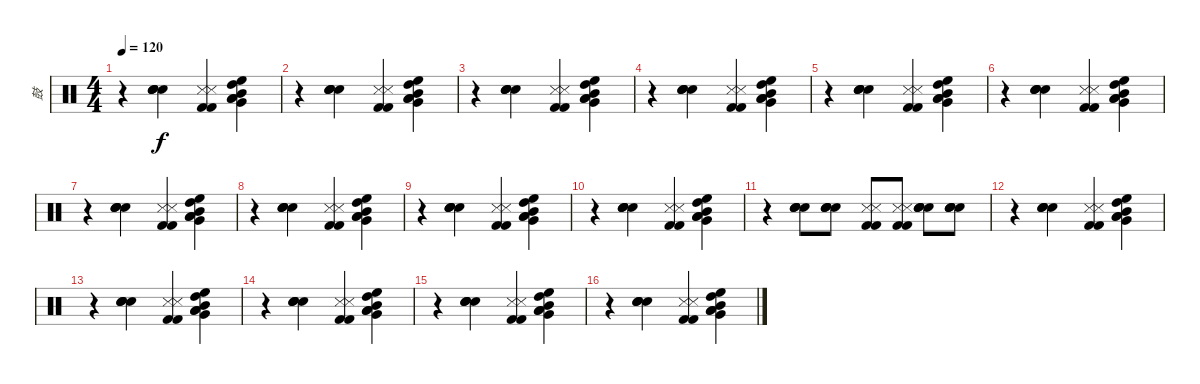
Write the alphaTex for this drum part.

\track ("鼓" "鼓") {instrument percussion}
\staff {score}
\articulation defaults
\ts (4 4)
\tempo 120
\clef neutral
\ks c
r.4{dy f} ("Hand Clap (hit)" "Hand Clap (hit)" "Hand Clap (hit)" "Hand Clap (hit)").4 ("Snare (side stick) 3" "Kick (hit) 2" "Kick (hit) 2" "Snare (side stick) 3").4 ("High Floor Tom (hit)" "High Tom (hit)" "Mid Tom (hit)" "Low Tom (hit)" "Very Low Tom (hit)" "Low Floor Tom (hit)").4 |
r.4 ("Hand Clap (hit)" "Hand Clap (hit)" "Hand Clap (hit)" "Hand Clap (hit)").4 ("Snare (side stick) 3" "Kick (hit) 2" "Kick (hit) 2" "Snare (side stick) 3").4 ("High Floor Tom (hit)" "High Tom (hit)" "Mid Tom (hit)" "Low Tom (hit)" "Very Low Tom (hit)" "Low Floor Tom (hit)").4 |
r.4 ("Hand Clap (hit)" "Hand Clap (hit)" "Hand Clap (hit)" "Hand Clap (hit)").4 ("Snare (side stick) 3" "Kick (hit) 2" "Kick (hit) 2" "Snare (side stick) 3").4 ("High Floor Tom (hit)" "High Tom (hit)" "Mid Tom (hit)" "Low Tom (hit)" "Very Low Tom (hit)" "Low Floor Tom (hit)").4 |
r.4 ("Hand Clap (hit)" "Hand Clap (hit)" "Hand Clap (hit)" "Hand Clap (hit)").4 ("Snare (side stick) 3" "Kick (hit) 2" "Kick (hit) 2" "Snare (side stick) 3").4 ("High Floor Tom (hit)" "High Tom (hit)" "Mid Tom (hit)" "Low Tom (hit)" "Very Low Tom (hit)" "Low Floor Tom (hit)").4 |
r.4 ("Hand Clap (hit)" "Hand Clap (hit)" "Hand Clap (hit)" "Hand Clap (hit)").4 ("Snare (side stick) 3" "Kick (hit) 2" "Kick (hit) 2" "Snare (side stick) 3").4 ("High Floor Tom (hit)" "High Tom (hit)" "Mid Tom (hit)" "Low Tom (hit)" "Very Low Tom (hit)" "Low Floor Tom (hit)").4 |
r.4 ("Hand Clap (hit)" "Hand Clap (hit)" "Hand Clap (hit)" "Hand Clap (hit)").4 ("Snare (side stick) 3" "Kick (hit) 2" "Kick (hit) 2" "Snare (side stick) 3").4 ("High Floor Tom (hit)" "High Tom (hit)" "Mid Tom (hit)" "Low Tom (hit)" "Very Low Tom (hit)" "Low Floor Tom (hit)").4 |
r.4 ("Hand Clap (hit)" "Hand Clap (hit)" "Hand Clap (hit)" "Hand Clap (hit)").4 ("Snare (side stick) 3" "Kick (hit) 2" "Kick (hit) 2" "Snare (side stick) 3").4 ("High Floor Tom (hit)" "High Tom (hit)" "Mid Tom (hit)" "Low Tom (hit)" "Very Low Tom (hit)" "Low Floor Tom (hit)").4 |
r.4 ("Hand Clap (hit)" "Hand Clap (hit)" "Hand Clap (hit)" "Hand Clap (hit)").4 ("Snare (side stick) 3" "Kick (hit) 2" "Kick (hit) 2" "Snare (side stick) 3").4 ("High Floor Tom (hit)" "High Tom (hit)" "Mid Tom (hit)" "Low Tom (hit)" "Very Low Tom (hit)" "Low Floor Tom (hit)").4 |
r.4 ("Hand Clap (hit)" "Hand Clap (hit)" "Hand Clap (hit)" "Hand Clap (hit)").4 ("Snare (side stick) 3" "Kick (hit) 2" "Kick (hit) 2" "Snare (side stick) 3").4 ("High Floor Tom (hit)" "High Tom (hit)" "Mid Tom (hit)" "Low Tom (hit)" "Very Low Tom (hit)" "Low Floor Tom (hit)").4 |
r.4 ("Hand Clap (hit)" "Hand Clap (hit)" "Hand Clap (hit)" "Hand Clap (hit)").4 ("Snare (side stick) 3" "Kick (hit) 2" "Kick (hit) 2" "Snare (side stick) 3").4 ("High Floor Tom (hit)" "High Tom (hit)" "Mid Tom (hit)" "Low Tom (hit)" "Very Low Tom (hit)" "Low Floor Tom (hit)").4 |
r.4 ("Hand Clap (hit)" "Hand Clap (hit)" "Hand Clap (hit)" "Hand Clap (hit)").8 ("Hand Clap (hit)" "Hand Clap (hit)" "Hand Clap (hit)" "Hand Clap (hit)").8 ("Snare (side stick) 3" "Kick (hit) 2" "Kick (hit) 2" "Snare (side stick) 3").8 ("Snare (side stick) 3" "Kick (hit) 2" "Kick (hit) 2" "Snare (side stick) 3").8 ("Hand Clap (hit)" "Hand Clap (hit)" "Hand Clap (hit)" "Hand Clap (hit)").8 ("Hand Clap (hit)" "Hand Clap (hit)" "Hand Clap (hit)" "Hand Clap (hit)").8 |
r.4 ("Hand Clap (hit)" "Hand Clap (hit)" "Hand Clap (hit)" "Hand Clap (hit)").4 ("Snare (side stick) 3" "Kick (hit) 2" "Kick (hit) 2" "Snare (side stick) 3").4 ("High Floor Tom (hit)" "High Tom (hit)" "Mid Tom (hit)" "Low Tom (hit)" "Very Low Tom (hit)" "Low Floor Tom (hit)").4 |
r.4 ("Hand Clap (hit)" "Hand Clap (hit)" "Hand Clap (hit)" "Hand Clap (hit)").4 ("Snare (side stick) 3" "Kick (hit) 2" "Kick (hit) 2" "Snare (side stick) 3").4 ("High Floor Tom (hit)" "High Tom (hit)" "Mid Tom (hit)" "Low Tom (hit)" "Very Low Tom (hit)" "Low Floor Tom (hit)").4 |
r.4 ("Hand Clap (hit)" "Hand Clap (hit)" "Hand Clap (hit)" "Hand Clap (hit)").4 ("Snare (side stick) 3" "Kick (hit) 2" "Kick (hit) 2" "Snare (side stick) 3").4 ("High Floor Tom (hit)" "High Tom (hit)" "Mid Tom (hit)" "Low Tom (hit)" "Very Low Tom (hit)" "Low Floor Tom (hit)").4 |
r.4 ("Hand Clap (hit)" "Hand Clap (hit)" "Hand Clap (hit)" "Hand Clap (hit)").4 ("Snare (side stick) 3" "Kick (hit) 2" "Kick (hit) 2" "Snare (side stick) 3").4 ("High Floor Tom (hit)" "High Tom (hit)" "Mid Tom (hit)" "Low Tom (hit)" "Very Low Tom (hit)" "Low Floor Tom (hit)").4 |
r.4 ("Hand Clap (hit)" "Hand Clap (hit)" "Hand Clap (hit)" "Hand Clap (hit)").4 ("Snare (side stick) 3" "Kick (hit) 2" "Kick (hit) 2" "Snare (side stick) 3").4 ("High Floor Tom (hit)" "High Tom (hit)" "Mid Tom (hit)" "Low Tom (hit)" "Very Low Tom (hit)" "Low Floor Tom (hit)").4
